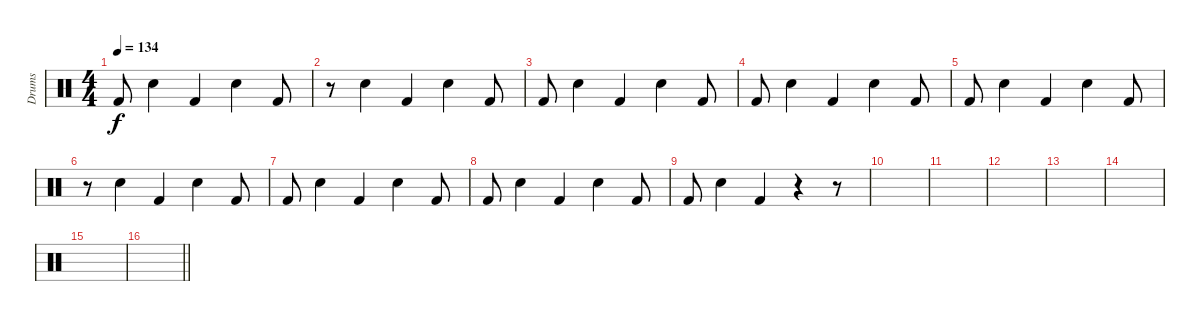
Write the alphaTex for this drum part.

\track ("Drums" "Drums") {instrument percussion}
\staff {score}
\articulation defaults
\ts (4 4)
\tempo 134
\clef neutral
\ks c "Kick (hit) 2".8{dy f} "Electric Snare (hit)".4 "Kick (hit) 2".4 "Electric Snare (hit)".4 "Kick (hit) 2".8
|
r.8 "Electric Snare (hit)".4 "Kick (hit) 2".4 "Electric Snare (hit)".4 "Kick (hit) 2".8 |
"Kick (hit) 2".8 "Electric Snare (hit)".4 "Kick (hit) 2".4 "Electric Snare (hit)".4 "Kick (hit) 2".8 |
"Kick (hit) 2".8 "Electric Snare (hit)".4 "Kick (hit) 2".4 "Electric Snare (hit)".4 "Kick (hit) 2".8 |
"Kick (hit) 2".8 "Electric Snare (hit)".4 "Kick (hit) 2".4 "Electric Snare (hit)".4 "Kick (hit) 2".8 |
r.8 "Electric Snare (hit)".4 "Kick (hit) 2".4 "Electric Snare (hit)".4 "Kick (hit) 2".8 |
"Kick (hit) 2".8 "Electric Snare (hit)".4 "Kick (hit) 2".4 "Electric Snare (hit)".4 "Kick (hit) 2".8 |
"Kick (hit) 2".8 "Electric Snare (hit)".4 "Kick (hit) 2".4 "Electric Snare (hit)".4 "Kick (hit) 2".8 |
"Kick (hit) 2".8 "Electric Snare (hit)".4 "Kick (hit) 2".4 r.4 r.8 |
|
|
|
|
|
|
\barLineRight lightlight
